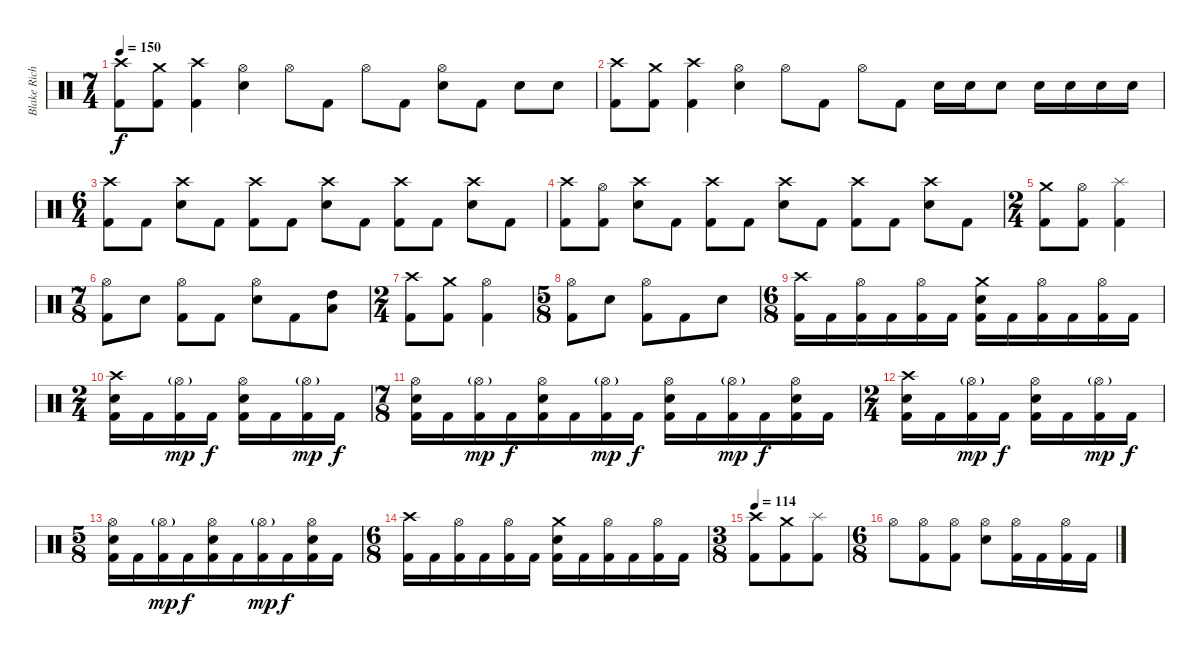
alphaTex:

\track ("Blake Richardson" "Blake Rich") {instrument percussion}
\staff {score}
\articulation defaults
\ts (7 4)
\tempo 150
\clef neutral
\ks c
("Crash high (hit)" "Kick (hit) 2").8{dy f} ("Crash medium (hit)" "Kick (hit) 2").8 ("Crash high (hit)" "Kick (hit) 2").4 ("Hi-Hat (open)" "Electric Snare (hit)").4 "Hi-Hat (open)".8 "Kick (hit) 2".8{beam split} "Hi-Hat (open)".8 "Kick (hit) 2".8 ("Hi-Hat (open)" "Electric Snare (hit)").8 "Kick (hit) 2".8{beam split} "Electric Snare (hit)".8 "Electric Snare (hit)".8 |
("Crash high (hit)" "Kick (hit) 2").8 ("Crash medium (hit)" "Kick (hit) 2").8 ("Crash high (hit)" "Kick (hit) 2").4 ("Hi-Hat (open)" "Electric Snare (hit)").4 "Hi-Hat (open)".8 "Kick (hit) 2".8{beam split} "Hi-Hat (open)".8 "Kick (hit) 2".8 "Electric Snare (hit)".16 "Electric Snare (hit)".16 "Electric Snare (hit)".8 "Electric Snare (hit)".16 "Electric Snare (hit)".16 "Electric Snare (hit)".16 "Electric Snare (hit)".16 |
\ts (6 4)
("Crash high (hit)" "Kick (hit) 2").8 "Kick (hit) 2".8{beam split} ("Crash high (hit)" "Electric Snare (hit)").8 "Kick (hit) 2".8{beam split} ("Crash high (hit)" "Kick (hit) 2").8 "Kick (hit) 2".8{beam split} ("Crash high (hit)" "Electric Snare (hit)").8 "Kick (hit) 2".8{beam split} ("Crash high (hit)" "Kick (hit) 2").8 "Kick (hit) 2".8{beam split} ("Crash high (hit)" "Electric Snare (hit)").8 "Kick (hit) 2".8 |
("Crash high (hit)" "Kick (hit) 2").8 ("Hi-Hat (open)" "Kick (hit) 2").8{beam split} ("Crash high (hit)" "Electric Snare (hit)").8 "Kick (hit) 2".8{beam split} ("Crash high (hit)" "Kick (hit) 2").8 "Kick (hit) 2".8{beam split} ("Crash high (hit)" "Electric Snare (hit)").8 "Kick (hit) 2".8{beam split} ("Crash high (hit)" "Kick (hit) 2").8 "Kick (hit) 2".8{beam split} ("Crash high (hit)" "Electric Snare (hit)").8 "Kick (hit) 2".8 |
\ts (2 4)
("Crash medium (hit)" "Kick (hit) 2").8 ("Hi-Hat (open)" "Kick (hit) 2").8 ("Splash (hit)" "Kick (hit) 2").4 |
\ts (7 8)
("Hi-Hat (open)" "Kick (hit) 2").8 "Electric Snare (hit)".8{beam split} ("Hi-Hat (open)" "Kick (hit) 2").8{beam merge} "Kick (hit) 2".8{beam split} ("Hi-Hat (open)" "Electric Snare (hit)").8{beam merge} "Kick (hit) 2".8 ("High Tom (hit)" "Low Tom (hit)").8 |
\ts (2 4)
("Crash high (hit)" "Kick (hit) 2").8 ("Crash medium (hit)" "Kick (hit) 2").8 ("Hi-Hat (open)" "Kick (hit) 2").4 |
\ts (5 8)
("Hi-Hat (open)" "Kick (hit) 2").8 "Electric Snare (hit)".8{beam split} ("Hi-Hat (open)" "Kick (hit) 2").8{beam merge} "Kick (hit) 2".8 "Electric Snare (hit)".8 |
\ts (6 8)
("Crash high (hit)" "Kick (hit) 2").16 "Kick (hit) 2".16 ("Hi-Hat (open)" "Kick (hit) 2").16 "Kick (hit) 2".16 ("Hi-Hat (open)" "Kick (hit) 2").16 "Kick (hit) 2".16 ("Crash medium (hit)" "Electric Snare (hit)" "Kick (hit) 2").16 "Kick (hit) 2".16 ("Hi-Hat (open)" "Kick (hit) 2").16 "Kick (hit) 2".16 ("Hi-Hat (open)" "Kick (hit) 2").16 "Kick (hit) 2".16 |
\ts (2 4)
("Crash high (hit)" "Electric Snare (hit)" "Kick (hit) 2").16 "Kick (hit) 2".16 ("Hi-Hat (open)"{g} "Kick (hit) 2").16{dy mp} "Kick (hit) 2".16{dy f} ("Hi-Hat (open)" "Electric Snare (hit)" "Kick (hit) 2").16 "Kick (hit) 2".16 ("Hi-Hat (open)"{g} "Kick (hit) 2").16{dy mp} "Kick (hit) 2".16{dy f} |
\ts (7 8)
("Hi-Hat (open)" "Electric Snare (hit)" "Kick (hit) 2").16 "Kick (hit) 2".16{beam merge} ("Hi-Hat (open)"{g} "Kick (hit) 2").16{dy mp} "Kick (hit) 2".16{dy f} ("Hi-Hat (open)" "Electric Snare (hit)" "Kick (hit) 2").16 "Kick (hit) 2".16{beam merge} ("Hi-Hat (open)"{g} "Kick (hit) 2").16{dy mp} "Kick (hit) 2".16{dy f} ("Hi-Hat (open)" "Electric Snare (hit)" "Kick (hit) 2").16 "Kick (hit) 2".16{beam merge} ("Hi-Hat (open)"{g} "Kick (hit) 2").16{dy mp} "Kick (hit) 2".16{dy f beam merge} ("Hi-Hat (open)" "Electric Snare (hit)" "Kick (hit) 2").16 "Kick (hit) 2".16 |
\ts (2 4)
("Crash high (hit)" "Electric Snare (hit)" "Kick (hit) 2").16 "Kick (hit) 2".16 ("Hi-Hat (open)"{g} "Kick (hit) 2").16{dy mp} "Kick (hit) 2".16{dy f} ("Hi-Hat (open)" "Electric Snare (hit)" "Kick (hit) 2").16 "Kick (hit) 2".16 ("Hi-Hat (open)"{g} "Kick (hit) 2").16{dy mp} "Kick (hit) 2".16{dy f} |
\ts (5 8)
("Hi-Hat (open)" "Electric Snare (hit)" "Kick (hit) 2").16 "Kick (hit) 2".16{beam merge} ("Hi-Hat (open)"{g} "Kick (hit) 2").16{dy mp} "Kick (hit) 2".16{dy f} ("Hi-Hat (open)" "Electric Snare (hit)" "Kick (hit) 2").16 "Kick (hit) 2".16{beam merge} ("Hi-Hat (open)"{g} "Kick (hit) 2").16{dy mp} "Kick (hit) 2".16{dy f} ("Hi-Hat (open)" "Electric Snare (hit)" "Kick (hit) 2").16 "Kick (hit) 2".16 |
\ts (6 8)
("Crash high (hit)" "Kick (hit) 2").16 "Kick (hit) 2".16 ("Hi-Hat (open)" "Kick (hit) 2").16 "Kick (hit) 2".16 ("Hi-Hat (open)" "Kick (hit) 2").16 "Kick (hit) 2".16 ("Crash medium (hit)" "Electric Snare (hit)" "Kick (hit) 2").16 "Kick (hit) 2".16 ("Hi-Hat (open)" "Kick (hit) 2").16 "Kick (hit) 2".16 ("Hi-Hat (open)" "Kick (hit) 2").16 "Kick (hit) 2".16 |
\ts (3 8)
\tempo 114
("Crash high (hit)" "Kick (hit) 2").8 ("Crash medium (hit)" "Kick (hit) 2").8 ("Splash (hit)" "Kick (hit) 2").8 |
\ts (6 8)
"Hi-Hat (open)".8 ("Hi-Hat (open)" "Kick (hit) 2").8 ("Hi-Hat (open)" "Kick (hit) 2").8 ("Hi-Hat (open)" "Electric Snare (hit)").8 ("Hi-Hat (open)" "Kick (hit) 2").16 "Kick (hit) 2".16 ("Hi-Hat (open)" "Kick (hit) 2").16 "Kick (hit) 2".16
